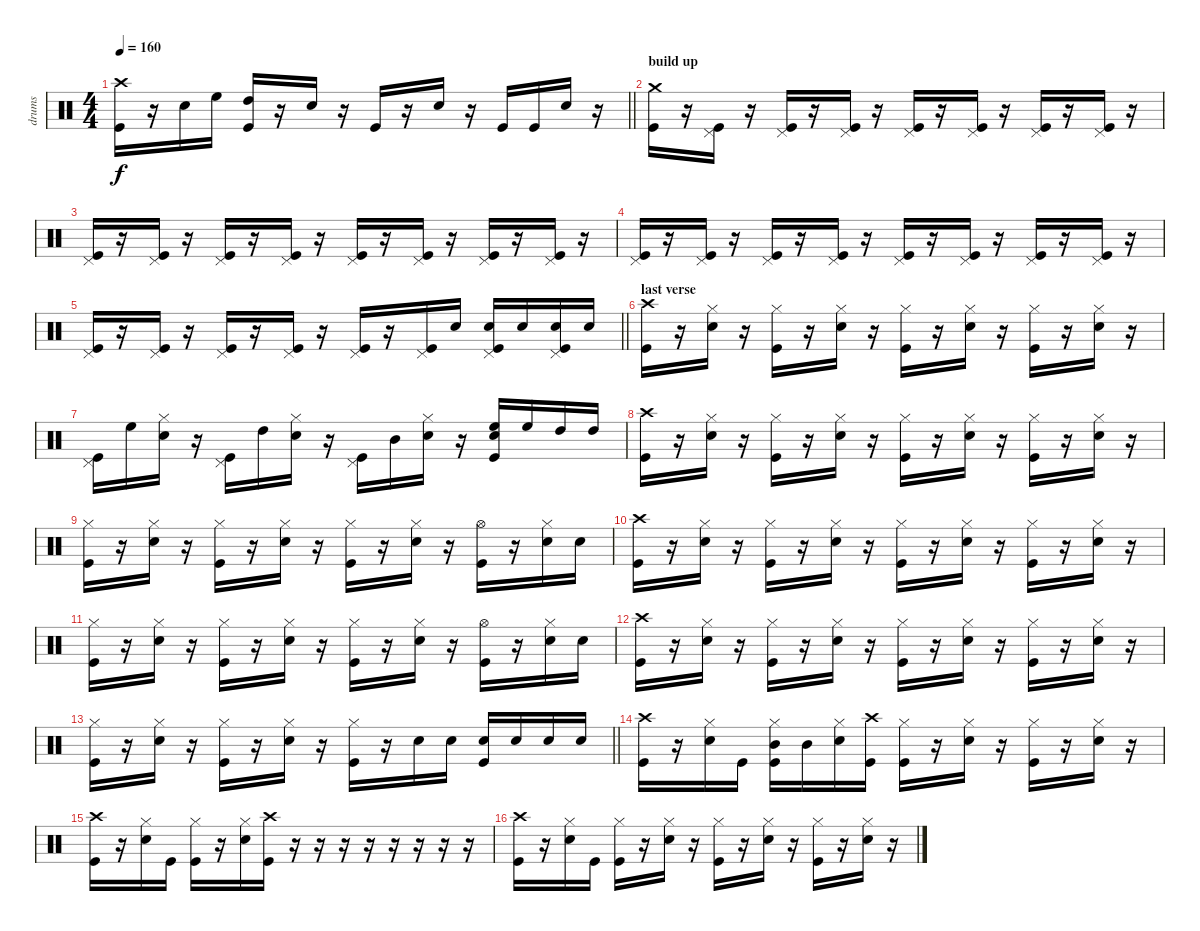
\track ("drums" "drums") {instrument percussion}
\staff {score}
\articulation defaults
\ts (4 4)
\tempo 160
\clef neutral
\barLineRight lightlight
\ks c
("Crash high (hit)" "Kick (hit)").16{dy f} r.16 "Electric Snare (hit)".16 "High Floor Tom (hit)".16 ("High Tom (hit)" "Kick (hit)").16 r.16 "Electric Snare (hit)".16 r.16 "Kick (hit)".16 r.16 "Electric Snare (hit)".16 r.16 "Kick (hit)".16 "Kick (hit)".16 "Electric Snare (hit)".16 r.16 |
\section ("" "build up")
("Crash medium (hit)" "Kick (hit)").16 r.16 ("Pedal Hi-Hat (hit)" "Kick (hit)").16 r.16 ("Pedal Hi-Hat (hit)" "Kick (hit)").16 r.16 ("Pedal Hi-Hat (hit)" "Kick (hit)").16 r.16 ("Pedal Hi-Hat (hit)" "Kick (hit)").16 r.16 ("Pedal Hi-Hat (hit)" "Kick (hit)").16 r.16 ("Pedal Hi-Hat (hit)" "Kick (hit)").16 r.16 ("Pedal Hi-Hat (hit)" "Kick (hit)").16 r.16 |
("Pedal Hi-Hat (hit)" "Kick (hit)").16 r.16 ("Pedal Hi-Hat (hit)" "Kick (hit)").16 r.16 ("Pedal Hi-Hat (hit)" "Kick (hit)").16 r.16 ("Pedal Hi-Hat (hit)" "Kick (hit)").16 r.16 ("Pedal Hi-Hat (hit)" "Kick (hit)").16 r.16 ("Pedal Hi-Hat (hit)" "Kick (hit)").16 r.16 ("Pedal Hi-Hat (hit)" "Kick (hit)").16 r.16 ("Pedal Hi-Hat (hit)" "Kick (hit)").16 r.16 |
("Pedal Hi-Hat (hit)" "Kick (hit)").16 r.16 ("Pedal Hi-Hat (hit)" "Kick (hit)").16 r.16 ("Pedal Hi-Hat (hit)" "Kick (hit)").16 r.16 ("Pedal Hi-Hat (hit)" "Kick (hit)").16 r.16 ("Pedal Hi-Hat (hit)" "Kick (hit)").16 r.16 ("Pedal Hi-Hat (hit)" "Kick (hit)").16 r.16 ("Pedal Hi-Hat (hit)" "Kick (hit)").16 r.16 ("Pedal Hi-Hat (hit)" "Kick (hit)").16 r.16 |
\barLineRight lightlight
("Pedal Hi-Hat (hit)" "Kick (hit)").16 r.16 ("Pedal Hi-Hat (hit)" "Kick (hit)").16 r.16 ("Pedal Hi-Hat (hit)" "Kick (hit)").16 r.16 ("Pedal Hi-Hat (hit)" "Kick (hit)").16 r.16 ("Pedal Hi-Hat (hit)" "Kick (hit)").16 r.16 ("Pedal Hi-Hat (hit)" "Kick (hit)").16 "Electric Snare (hit)".16 ("Pedal Hi-Hat (hit)" "Electric Snare (hit)" "Kick (hit)").16 "Electric Snare (hit)".16 ("Pedal Hi-Hat (hit)" "Electric Snare (hit)" "Kick (hit)").16 "Electric Snare (hit)".16 |
\section ("" "last verse")
("Crash high (hit)" "Kick (hit)").16 r.16 ("Hi-Hat (closed)" "Electric Snare (hit)").16 r.16 ("Hi-Hat (closed)" "Kick (hit)").16 r.16 ("Hi-Hat (closed)" "Electric Snare (hit)").16 r.16 ("Hi-Hat (closed)" "Kick (hit)").16 r.16 ("Hi-Hat (closed)" "Electric Snare (hit)").16 r.16 ("Hi-Hat (closed)" "Kick (hit)").16 r.16 ("Hi-Hat (closed)" "Electric Snare (hit)").16 r.16 |
("Pedal Hi-Hat (hit)" "Kick (hit)").16 "High Floor Tom (hit)".16 ("Hi-Hat (closed)" "Electric Snare (hit)").16 r.16 ("Pedal Hi-Hat (hit)" "Kick (hit)").16 "High Tom (hit)".16 ("Hi-Hat (closed)" "Electric Snare (hit)").16 r.16 ("Pedal Hi-Hat (hit)" "Kick (hit)").16 "Mid Tom (hit)".16 ("Hi-Hat (closed)" "Electric Snare (hit)").16 r.16 ("Electric Snare (hit)" "High Floor Tom (hit)" "Kick (hit)").16 "High Floor Tom (hit)".16 "High Tom (hit)".16 "High Tom (hit)".16 |
("Crash high (hit)" "Kick (hit)").16 r.16 ("Hi-Hat (closed)" "Electric Snare (hit)").16 r.16 ("Hi-Hat (closed)" "Kick (hit)").16 r.16 ("Hi-Hat (closed)" "Electric Snare (hit)").16 r.16 ("Hi-Hat (closed)" "Kick (hit)").16 r.16 ("Hi-Hat (closed)" "Electric Snare (hit)").16 r.16 ("Hi-Hat (closed)" "Kick (hit)").16 r.16 ("Hi-Hat (closed)" "Electric Snare (hit)").16 r.16 |
("Hi-Hat (closed)" "Kick (hit)").16 r.16 ("Hi-Hat (closed)" "Electric Snare (hit)").16 r.16 ("Hi-Hat (closed)" "Kick (hit)").16 r.16 ("Hi-Hat (closed)" "Electric Snare (hit)").16 r.16 ("Hi-Hat (closed)" "Kick (hit)").16 r.16 ("Hi-Hat (closed)" "Electric Snare (hit)").16 r.16 ("Hi-Hat (open)" "Kick (hit)").16 r.16 ("Hi-Hat (closed)" "Electric Snare (hit)").16 "Electric Snare (hit)".16 |
("Crash high (hit)" "Kick (hit)").16 r.16 ("Hi-Hat (closed)" "Electric Snare (hit)").16 r.16 ("Hi-Hat (closed)" "Kick (hit)").16 r.16 ("Hi-Hat (closed)" "Electric Snare (hit)").16 r.16 ("Hi-Hat (closed)" "Kick (hit)").16 r.16 ("Hi-Hat (closed)" "Electric Snare (hit)").16 r.16 ("Hi-Hat (closed)" "Kick (hit)").16 r.16 ("Hi-Hat (closed)" "Electric Snare (hit)").16 r.16 |
("Hi-Hat (closed)" "Kick (hit)").16 r.16 ("Hi-Hat (closed)" "Electric Snare (hit)").16 r.16 ("Hi-Hat (closed)" "Kick (hit)").16 r.16 ("Hi-Hat (closed)" "Electric Snare (hit)").16 r.16 ("Hi-Hat (closed)" "Kick (hit)").16 r.16 ("Hi-Hat (closed)" "Electric Snare (hit)").16 r.16 ("Hi-Hat (open)" "Kick (hit)").16 r.16 ("Hi-Hat (closed)" "Electric Snare (hit)").16 "Electric Snare (hit)".16 |
("Crash high (hit)" "Kick (hit)").16 r.16 ("Hi-Hat (closed)" "Electric Snare (hit)").16 r.16 ("Hi-Hat (closed)" "Kick (hit)").16 r.16 ("Hi-Hat (closed)" "Electric Snare (hit)").16 r.16 ("Hi-Hat (closed)" "Kick (hit)").16 r.16 ("Hi-Hat (closed)" "Electric Snare (hit)").16 r.16 ("Hi-Hat (closed)" "Kick (hit)").16 r.16 ("Hi-Hat (closed)" "Electric Snare (hit)").16 r.16 |
\barLineRight lightlight
("Hi-Hat (closed)" "Kick (hit)").16 r.16 ("Hi-Hat (closed)" "Electric Snare (hit)").16 r.16 ("Hi-Hat (closed)" "Kick (hit)").16 r.16 ("Hi-Hat (closed)" "Electric Snare (hit)").16 r.16 ("Hi-Hat (closed)" "Kick (hit)").16 r.16 "Electric Snare (hit)".16 "Electric Snare (hit)".16 ("Electric Snare (hit)" "Kick (hit)").16 "Electric Snare (hit)".16 "Electric Snare (hit)".16 "Electric Snare (hit)".16 |
("Crash high (hit)" "Kick (hit)").16 r.16 ("Hi-Hat (closed)" "Electric Snare (hit)").16 "Kick (hit)".16 ("Hi-Hat (closed)" "Mid Tom (hit)" "Kick (hit)").16 "Mid Tom (hit)".16 ("Hi-Hat (closed)" "Electric Snare (hit)").16 ("Crash high (hit)" "Kick (hit)").16 ("Hi-Hat (closed)" "Kick (hit)").16 r.16 ("Hi-Hat (closed)" "Electric Snare (hit)").16 r.16 ("Hi-Hat (closed)" "Kick (hit)").16 r.16 ("Hi-Hat (closed)" "Electric Snare (hit)").16 r.16 |
("Crash high (hit)" "Kick (hit)").16 r.16 ("Hi-Hat (closed)" "Electric Snare (hit)").16 "Kick (hit)".16 ("Hi-Hat (closed)" "Kick (hit)").16 r.16 ("Hi-Hat (closed)" "Electric Snare (hit)").16 ("Crash high (hit)" "Kick (hit)").16 r.16 r.16 r.16 r.16 r.16 r.16 r.16 r.16 |
("Crash high (hit)" "Kick (hit)").16 r.16 ("Hi-Hat (closed)" "Electric Snare (hit)").16 "Kick (hit)".16 ("Hi-Hat (closed)" "Kick (hit)").16 r.16 ("Hi-Hat (closed)" "Electric Snare (hit)").16 r.16 ("Hi-Hat (closed)" "Kick (hit)").16 r.16 ("Hi-Hat (closed)" "Electric Snare (hit)").16 r.16 ("Hi-Hat (closed)" "Kick (hit)").16 r.16 ("Hi-Hat (closed)" "Electric Snare (hit)").16 r.16
